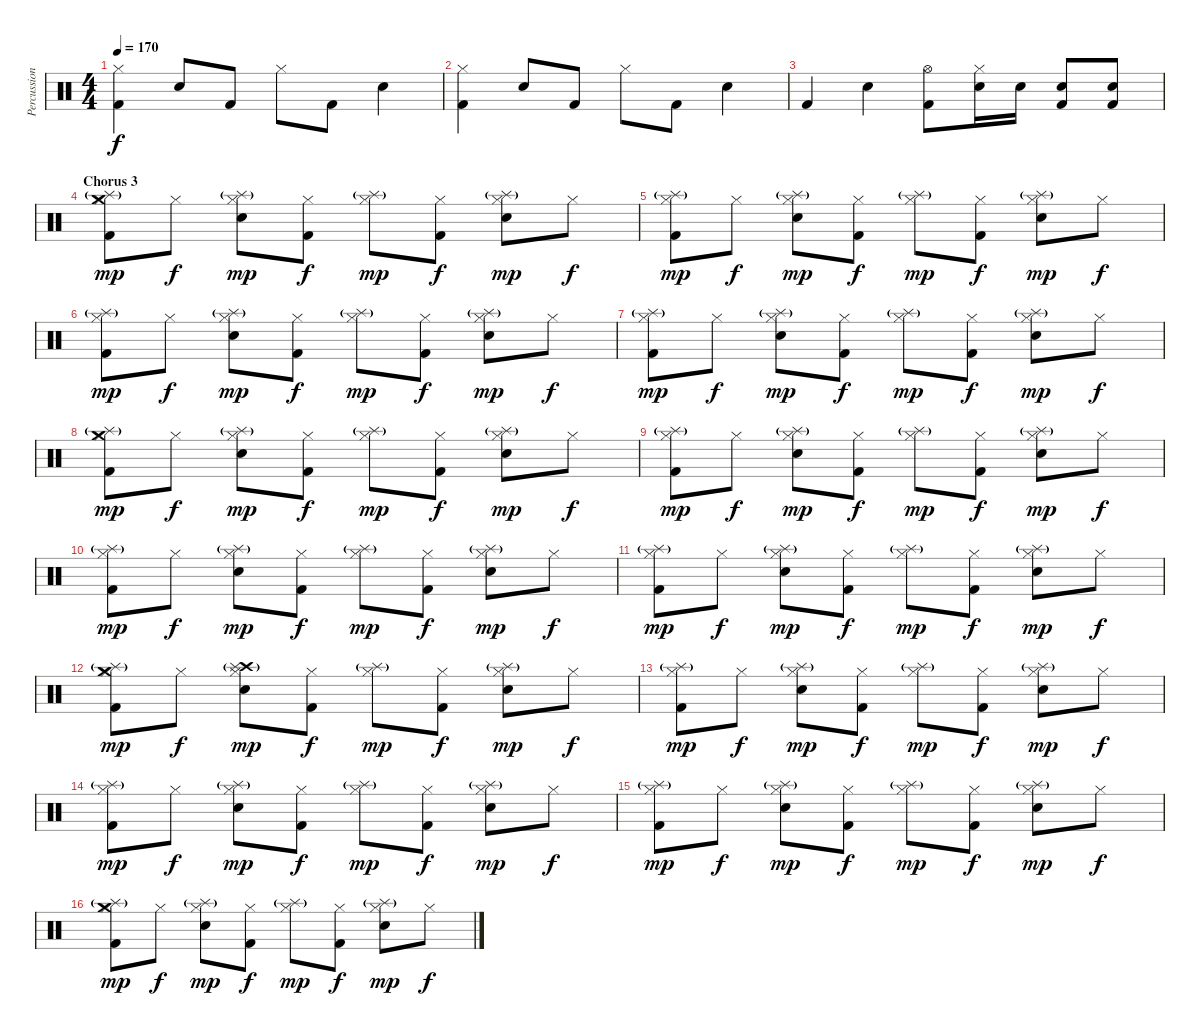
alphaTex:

\track ("Percussions" "Percussion") {instrument percussion}
\staff {score}
\articulation defaults
\ts (4 4)
\tempo 170
\clef neutral
\ks c
("Hi-Hat (closed)" "Kick (hit) 2").4{dy f} "Electric Snare (hit)".8 "Kick (hit) 2".8 "Hi-Hat (closed)".8 "Kick (hit) 2".8 "Electric Snare (hit)".4 |
("Hi-Hat (closed)" "Kick (hit) 2").4 "Electric Snare (hit)".8 "Kick (hit) 2".8 "Hi-Hat (closed)".8 "Kick (hit) 2".8 "Electric Snare (hit)".4 |
"Kick (hit) 2".4 "Electric Snare (hit)".4 ("Hi-Hat (open)" "Kick (hit) 2").8 ("Hi-Hat (closed)" "Electric Snare (hit)").16 "Electric Snare (hit)".16 ("Kick (hit) 2" "Electric Snare (hit)").8 ("Kick (hit) 2" "Electric Snare (hit)").8 |
\section ("" "Chorus 3")
("Crash medium (hit)" "Splash (hit)"{g} "Hi-Hat (closed)" "Kick (hit) 2").8{dy mp} "Hi-Hat (closed)".8{dy f} ("Splash (hit)"{g} "Hi-Hat (closed)" "Electric Snare (hit)").8{dy mp} ("Hi-Hat (closed)" "Kick (hit) 2").8{dy f} ("Splash (hit)"{g} "Hi-Hat (closed)").8{dy mp} ("Hi-Hat (closed)" "Kick (hit) 2").8{dy f} ("Splash (hit)"{g} "Hi-Hat (closed)" "Electric Snare (hit)").8{dy mp} "Hi-Hat (closed)".8{dy f} |
("Splash (hit)"{g} "Hi-Hat (closed)" "Kick (hit) 2").8{dy mp} "Hi-Hat (closed)".8{dy f} ("Splash (hit)"{g} "Hi-Hat (closed)" "Electric Snare (hit)").8{dy mp} ("Hi-Hat (closed)" "Kick (hit) 2").8{dy f} ("Splash (hit)"{g} "Hi-Hat (closed)").8{dy mp} ("Hi-Hat (closed)" "Kick (hit) 2").8{dy f} ("Splash (hit)"{g} "Hi-Hat (closed)" "Electric Snare (hit)").8{dy mp} "Hi-Hat (closed)".8{dy f} |
("Splash (hit)"{g} "Hi-Hat (closed)" "Kick (hit) 2").8{dy mp} "Hi-Hat (closed)".8{dy f} ("Splash (hit)"{g} "Hi-Hat (closed)" "Electric Snare (hit)").8{dy mp} ("Hi-Hat (closed)" "Kick (hit) 2").8{dy f} ("Splash (hit)"{g} "Hi-Hat (closed)").8{dy mp} ("Hi-Hat (closed)" "Kick (hit) 2").8{dy f} ("Splash (hit)"{g} "Hi-Hat (closed)" "Electric Snare (hit)").8{dy mp} "Hi-Hat (closed)".8{dy f} |
("Splash (hit)"{g} "Hi-Hat (closed)" "Kick (hit) 2").8{dy mp} "Hi-Hat (closed)".8{dy f} ("Splash (hit)"{g} "Hi-Hat (closed)" "Electric Snare (hit)").8{dy mp} ("Hi-Hat (closed)" "Kick (hit) 2").8{dy f} ("Splash (hit)"{g} "Hi-Hat (closed)").8{dy mp} ("Hi-Hat (closed)" "Kick (hit) 2").8{dy f} ("Splash (hit)"{g} "Hi-Hat (closed)" "Electric Snare (hit)").8{dy mp} "Hi-Hat (closed)".8{dy f} |
("Crash medium (hit)" "Splash (hit)"{g} "Hi-Hat (closed)" "Kick (hit) 2").8{dy mp} "Hi-Hat (closed)".8{dy f} ("Splash (hit)"{g} "Hi-Hat (closed)" "Electric Snare (hit)").8{dy mp} ("Hi-Hat (closed)" "Kick (hit) 2").8{dy f} ("Splash (hit)"{g} "Hi-Hat (closed)").8{dy mp} ("Hi-Hat (closed)" "Kick (hit) 2").8{dy f} ("Splash (hit)"{g} "Hi-Hat (closed)" "Electric Snare (hit)").8{dy mp} "Hi-Hat (closed)".8{dy f} |
("Splash (hit)"{g} "Hi-Hat (closed)" "Kick (hit) 2").8{dy mp} "Hi-Hat (closed)".8{dy f} ("Splash (hit)"{g} "Hi-Hat (closed)" "Electric Snare (hit)").8{dy mp} ("Hi-Hat (closed)" "Kick (hit) 2").8{dy f} ("Splash (hit)"{g} "Hi-Hat (closed)").8{dy mp} ("Hi-Hat (closed)" "Kick (hit) 2").8{dy f} ("Splash (hit)"{g} "Hi-Hat (closed)" "Electric Snare (hit)").8{dy mp} "Hi-Hat (closed)".8{dy f} |
("Splash (hit)"{g} "Hi-Hat (closed)" "Kick (hit) 2").8{dy mp} "Hi-Hat (closed)".8{dy f} ("Splash (hit)"{g} "Hi-Hat (closed)" "Electric Snare (hit)").8{dy mp} ("Hi-Hat (closed)" "Kick (hit) 2").8{dy f} ("Splash (hit)"{g} "Hi-Hat (closed)").8{dy mp} ("Hi-Hat (closed)" "Kick (hit) 2").8{dy f} ("Splash (hit)"{g} "Hi-Hat (closed)" "Electric Snare (hit)").8{dy mp} "Hi-Hat (closed)".8{dy f} |
("Splash (hit)"{g} "Hi-Hat (closed)" "Kick (hit) 2").8{dy mp} "Hi-Hat (closed)".8{dy f} ("Splash (hit)"{g} "Hi-Hat (closed)" "Electric Snare (hit)").8{dy mp} ("Hi-Hat (closed)" "Kick (hit) 2").8{dy f} ("Splash (hit)"{g} "Hi-Hat (closed)").8{dy mp} ("Hi-Hat (closed)" "Kick (hit) 2").8{dy f} ("Splash (hit)"{g} "Hi-Hat (closed)" "Electric Snare (hit)").8{dy mp} "Hi-Hat (closed)".8{dy f} |
("Crash medium (hit)" "Splash (hit)"{g} "Hi-Hat (closed)" "Kick (hit) 2").8{dy mp} "Hi-Hat (closed)".8{dy f} ("Crash high (hit)" "Splash (hit)"{g} "Hi-Hat (closed)" "Electric Snare (hit)").8{dy mp} ("Hi-Hat (closed)" "Kick (hit) 2").8{dy f} ("Splash (hit)"{g} "Hi-Hat (closed)").8{dy mp} ("Hi-Hat (closed)" "Kick (hit) 2").8{dy f} ("Splash (hit)"{g} "Hi-Hat (closed)" "Electric Snare (hit)").8{dy mp} "Hi-Hat (closed)".8{dy f} |
("Splash (hit)"{g} "Hi-Hat (closed)" "Kick (hit) 2").8{dy mp} "Hi-Hat (closed)".8{dy f} ("Splash (hit)"{g} "Hi-Hat (closed)" "Electric Snare (hit)").8{dy mp} ("Hi-Hat (closed)" "Kick (hit) 2").8{dy f} ("Splash (hit)"{g} "Hi-Hat (closed)").8{dy mp} ("Hi-Hat (closed)" "Kick (hit) 2").8{dy f} ("Splash (hit)"{g} "Hi-Hat (closed)" "Electric Snare (hit)").8{dy mp} "Hi-Hat (closed)".8{dy f} |
("Splash (hit)"{g} "Hi-Hat (closed)" "Kick (hit) 2").8{dy mp} "Hi-Hat (closed)".8{dy f} ("Splash (hit)"{g} "Hi-Hat (closed)" "Electric Snare (hit)").8{dy mp} ("Hi-Hat (closed)" "Kick (hit) 2").8{dy f} ("Splash (hit)"{g} "Hi-Hat (closed)").8{dy mp} ("Hi-Hat (closed)" "Kick (hit) 2").8{dy f} ("Splash (hit)"{g} "Hi-Hat (closed)" "Electric Snare (hit)").8{dy mp} "Hi-Hat (closed)".8{dy f} |
("Splash (hit)"{g} "Hi-Hat (closed)" "Kick (hit) 2").8{dy mp} "Hi-Hat (closed)".8{dy f} ("Splash (hit)"{g} "Hi-Hat (closed)" "Electric Snare (hit)").8{dy mp} ("Hi-Hat (closed)" "Kick (hit) 2").8{dy f} ("Splash (hit)"{g} "Hi-Hat (closed)").8{dy mp} ("Hi-Hat (closed)" "Kick (hit) 2").8{dy f} ("Splash (hit)"{g} "Hi-Hat (closed)" "Electric Snare (hit)").8{dy mp} "Hi-Hat (closed)".8{dy f} |
("Crash medium (hit)" "Splash (hit)"{g} "Hi-Hat (closed)" "Kick (hit) 2").8{dy mp} "Hi-Hat (closed)".8{dy f} ("Splash (hit)"{g} "Hi-Hat (closed)" "Electric Snare (hit)").8{dy mp} ("Hi-Hat (closed)" "Kick (hit) 2").8{dy f} ("Splash (hit)"{g} "Hi-Hat (closed)").8{dy mp} ("Hi-Hat (closed)" "Kick (hit) 2").8{dy f} ("Splash (hit)"{g} "Hi-Hat (closed)" "Electric Snare (hit)").8{dy mp} "Hi-Hat (closed)".8{dy f}
